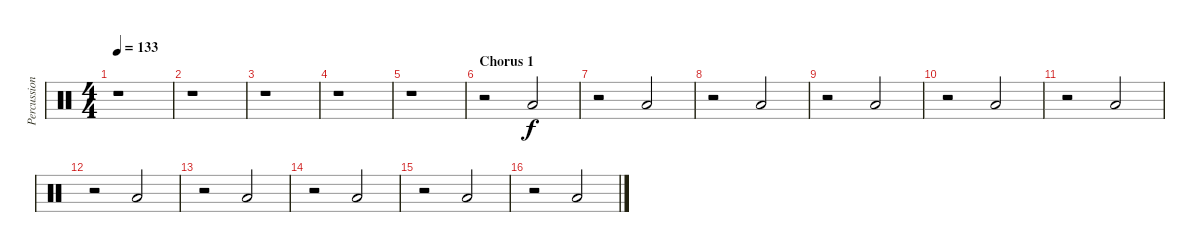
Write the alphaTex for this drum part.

\track ("Percussion" "Percussion") {instrument percussion}
\staff {score}
\articulation defaults
\ts (4 4)
\tempo 133
\clef neutral
\ks c
r.1{dy f} |
r.1 |
r.1 |
r.1 |
r.1 |
\section ("" "Chorus 1")
r.2 "Low Tom (hit)".2 |
r.2 "Low Tom (hit)".2 |
r.2 "Low Tom (hit)".2 |
r.2 "Low Tom (hit)".2 |
r.2 "Low Tom (hit)".2 |
r.2 "Low Tom (hit)".2 |
r.2 "Low Tom (hit)".2 |
r.2 "Low Tom (hit)".2 |
r.2 "Low Tom (hit)".2 |
r.2 "Low Tom (hit)".2 |
r.2 "Low Tom (hit)".2
